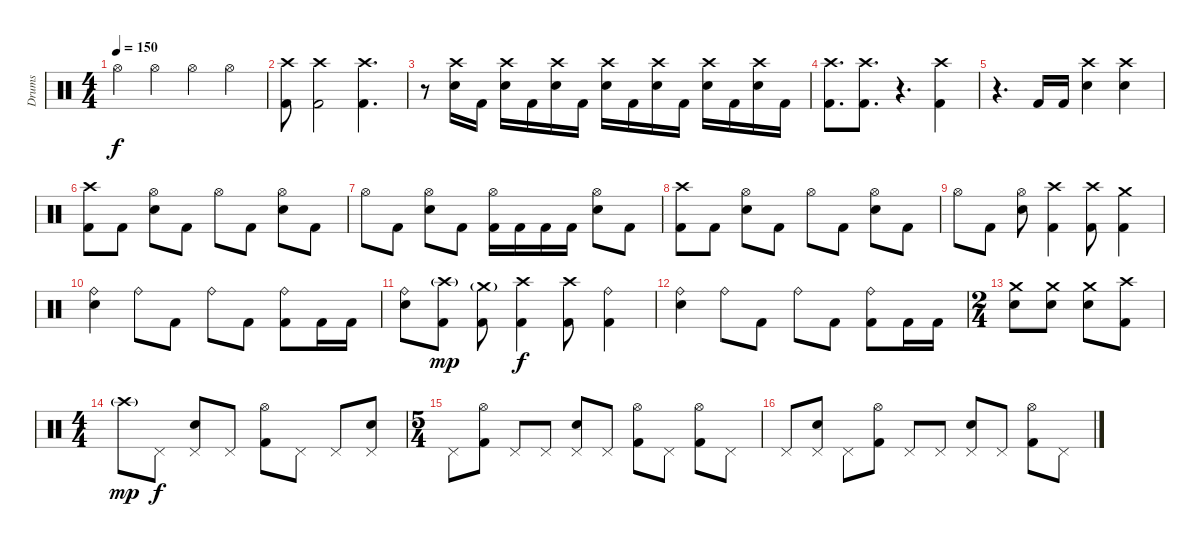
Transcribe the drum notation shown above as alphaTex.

\track ("Drums" "Drums") {instrument percussion}
\staff {score}
\articulation defaults
\ts (4 4)
\tempo 150
\clef neutral
\ks c "Hi-Hat (open)".4{dy f} "Hi-Hat (open)".4 "Hi-Hat (open)".4 "Hi-Hat (open)".4
|
("Crash high (hit)" "Kick (hit) 2").8 ("Crash high (hit)" "Kick (hit) 2").2 ("Crash high (hit)" "Kick (hit) 2").4{d} |
r.8 ("Crash high (hit)" "Electric Snare (hit)").16 "Kick (hit) 2".16 ("Crash high (hit)" "Electric Snare (hit)").16 "Kick (hit) 2".16 ("Crash high (hit)" "Electric Snare (hit)").16 "Kick (hit) 2".16 ("Crash high (hit)" "Electric Snare (hit)").16 "Kick (hit) 2".16 ("Crash high (hit)" "Electric Snare (hit)").16 "Kick (hit) 2".16 ("Crash high (hit)" "Electric Snare (hit)").16 "Kick (hit) 2".16 ("Crash high (hit)" "Electric Snare (hit)").16 "Kick (hit) 2".16 |
("Crash high (hit)" "Kick (hit) 2").8{d} ("Crash high (hit)" "Kick (hit) 2").8{d} r.4{d} ("Crash high (hit)" "Kick (hit) 2").4 |
r.4{d} "Kick (hit) 2".16 "Kick (hit) 2".16 ("Crash high (hit)" "Electric Snare (hit)").4 ("Crash high (hit)" "Electric Snare (hit)").4 |
("Crash high (hit)" "Kick (hit) 2").8 "Kick (hit) 2".8 ("Hi-Hat (open)" "Electric Snare (hit)").8 "Kick (hit) 2".8 "Hi-Hat (open)".8 "Kick (hit) 2".8 ("Hi-Hat (open)" "Electric Snare (hit)").8 "Kick (hit) 2".8 |
"Hi-Hat (open)".8 "Kick (hit) 2".8 ("Hi-Hat (open)" "Electric Snare (hit)").8 "Kick (hit) 2".8 ("Hi-Hat (open)" "Kick (hit) 2").16 "Kick (hit) 2".16 "Kick (hit) 2".16 "Kick (hit) 2".16 ("Hi-Hat (open)" "Electric Snare (hit)").8 "Kick (hit) 2".8 |
("Crash high (hit)" "Kick (hit) 2").8 "Kick (hit) 2".8 ("Hi-Hat (open)" "Electric Snare (hit)").8 "Kick (hit) 2".8 "Hi-Hat (open)".8 "Kick (hit) 2".8 ("Hi-Hat (open)" "Electric Snare (hit)").8 "Kick (hit) 2".8 |
"Hi-Hat (open)".8 "Kick (hit) 2".8 ("Hi-Hat (open)" "Electric Snare (hit)").8 ("Crash high (hit)" "Kick (hit) 2").4 ("Crash high (hit)" "Kick (hit) 2").8 ("Crash medium (hit)" "Kick (hit) 2").4 |
("Ride (bell)" "Electric Snare (hit)").4 "Ride (bell)".8 "Kick (hit) 2".8 "Ride (bell)".8 "Kick (hit) 2".8 ("Ride (bell)" "Kick (hit) 2").8 "Kick (hit) 2".16 "Kick (hit) 2".16 |
("Ride (bell)" "Electric Snare (hit)").8 ("Crash high (hit)"{g} "Kick (hit) 2").8{dy mp} ("Crash medium (hit)"{g} "Kick (hit) 2").8 ("Crash high (hit)" "Kick (hit) 2").4{dy f} ("Crash high (hit)" "Kick (hit) 2").8 ("Ride (bell)" "Kick (hit) 2").4 |
("Ride (bell)" "Electric Snare (hit)").4 "Ride (bell)".8 "Kick (hit) 2".8 "Ride (bell)".8 "Kick (hit) 2".8 ("Ride (bell)" "Kick (hit) 2").8 "Kick (hit) 2".16 "Kick (hit) 2".16 |
\ts (2 4)
("Crash medium (hit)" "Electric Snare (hit)").8 ("Crash medium (hit)" "Electric Snare (hit)").8 ("Crash medium (hit)" "Electric Snare (hit)").8 ("Crash high (hit)" "Kick (hit) 2").8 |
\ts (4 4)
"Crash high (hit)"{g}.8{dy mp} "Pedal Hi-Hat (hit)".8{dy f} ("Pedal Hi-Hat (hit)" "Electric Snare (hit)").8 "Pedal Hi-Hat (hit)".8 ("Hi-Hat (open)" "Kick (hit) 2").8 "Pedal Hi-Hat (hit)".8 "Pedal Hi-Hat (hit)".8 ("Pedal Hi-Hat (hit)" "Electric Snare (hit)").8 |
\ts (5 4)
"Pedal Hi-Hat (hit)".8 ("Hi-Hat (open)" "Kick (hit) 2").8 "Pedal Hi-Hat (hit)".8 "Pedal Hi-Hat (hit)".8 ("Pedal Hi-Hat (hit)" "Electric Snare (hit)").8 "Pedal Hi-Hat (hit)".8 ("Hi-Hat (open)" "Kick (hit) 2").8 "Pedal Hi-Hat (hit)".8 ("Hi-Hat (open)" "Kick (hit) 2").8 "Pedal Hi-Hat (hit)".8 |
"Pedal Hi-Hat (hit)".8 ("Pedal Hi-Hat (hit)" "Electric Snare (hit)").8 "Pedal Hi-Hat (hit)".8 ("Hi-Hat (open)" "Kick (hit) 2").8 "Pedal Hi-Hat (hit)".8 "Pedal Hi-Hat (hit)".8 ("Pedal Hi-Hat (hit)" "Electric Snare (hit)").8 "Pedal Hi-Hat (hit)".8 ("Hi-Hat (open)" "Kick (hit) 2").8 "Pedal Hi-Hat (hit)".8
